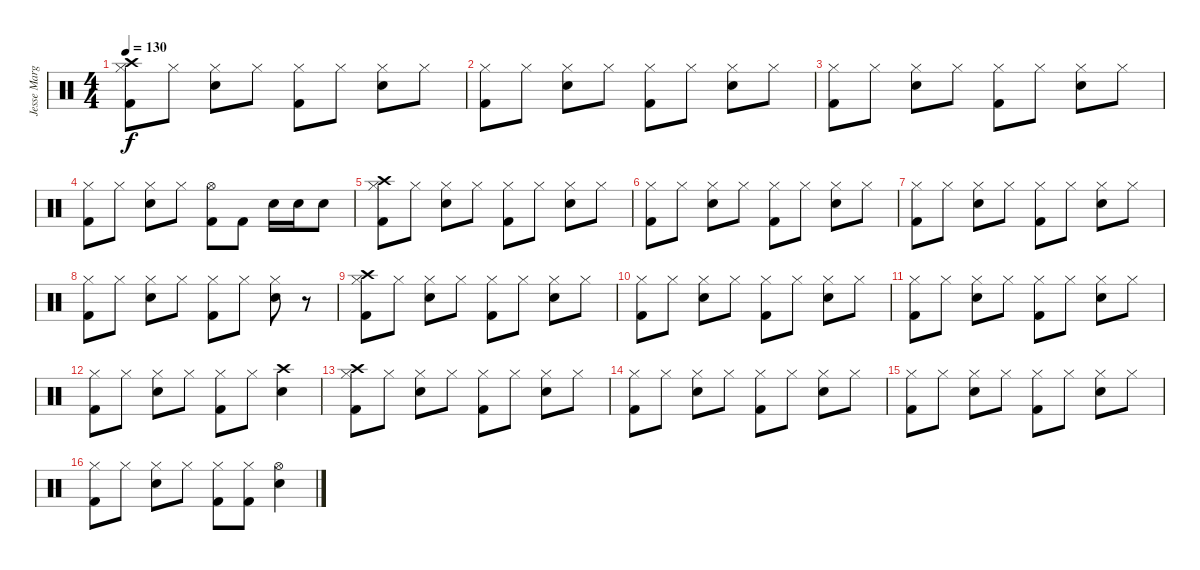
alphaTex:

\track ("Jesse Margera" "Jesse Marg") {instrument percussion}
\staff {score}
\articulation defaults
\ts (4 4)
\tempo 130
\clef neutral
\ks c
("Hi-Hat (closed)" "Crash high (hit)" "Kick (hit) 2").8{dy f} "Hi-Hat (closed)".8 ("Hi-Hat (closed)" "Electric Snare (hit)").8 "Hi-Hat (closed)".8 ("Hi-Hat (closed)" "Kick (hit) 2").8 "Hi-Hat (closed)".8 ("Hi-Hat (closed)" "Electric Snare (hit)").8 "Hi-Hat (closed)".8 |
("Hi-Hat (closed)" "Kick (hit) 2").8 "Hi-Hat (closed)".8 ("Hi-Hat (closed)" "Electric Snare (hit)").8 "Hi-Hat (closed)".8 ("Hi-Hat (closed)" "Kick (hit) 2").8 "Hi-Hat (closed)".8 ("Hi-Hat (closed)" "Electric Snare (hit)").8 "Hi-Hat (closed)".8 |
("Hi-Hat (closed)" "Kick (hit) 2").8 "Hi-Hat (closed)".8 ("Hi-Hat (closed)" "Electric Snare (hit)").8 "Hi-Hat (closed)".8 ("Hi-Hat (closed)" "Kick (hit) 2").8 "Hi-Hat (closed)".8 ("Hi-Hat (closed)" "Electric Snare (hit)").8 "Hi-Hat (closed)".8 |
("Hi-Hat (closed)" "Kick (hit) 2").8 "Hi-Hat (closed)".8 ("Hi-Hat (closed)" "Electric Snare (hit)").8 "Hi-Hat (closed)".8 ("Hi-Hat (open)" "Kick (hit) 2").8 "Kick (hit) 2".8 "Electric Snare (hit)".16 "Electric Snare (hit)".16 "Electric Snare (hit)".8 |
("Hi-Hat (closed)" "Crash high (hit)" "Kick (hit) 2").8 "Hi-Hat (closed)".8 ("Hi-Hat (closed)" "Electric Snare (hit)").8 "Hi-Hat (closed)".8 ("Hi-Hat (closed)" "Kick (hit) 2").8 "Hi-Hat (closed)".8 ("Hi-Hat (closed)" "Electric Snare (hit)").8 "Hi-Hat (closed)".8 |
("Hi-Hat (closed)" "Kick (hit) 2").8 "Hi-Hat (closed)".8 ("Hi-Hat (closed)" "Electric Snare (hit)").8 "Hi-Hat (closed)".8 ("Hi-Hat (closed)" "Kick (hit) 2").8 "Hi-Hat (closed)".8 ("Hi-Hat (closed)" "Electric Snare (hit)").8 "Hi-Hat (closed)".8 |
("Hi-Hat (closed)" "Kick (hit) 2").8 "Hi-Hat (closed)".8 ("Hi-Hat (closed)" "Electric Snare (hit)").8 "Hi-Hat (closed)".8 ("Hi-Hat (closed)" "Kick (hit) 2").8 "Hi-Hat (closed)".8 ("Hi-Hat (closed)" "Electric Snare (hit)").8 "Hi-Hat (closed)".8 |
("Hi-Hat (closed)" "Kick (hit) 2").8 "Hi-Hat (closed)".8 ("Hi-Hat (closed)" "Electric Snare (hit)").8 "Hi-Hat (closed)".8 ("Hi-Hat (closed)" "Kick (hit) 2").8 "Hi-Hat (closed)".8 ("Hi-Hat (closed)" "Electric Snare (hit)").8 r.8 |
("Hi-Hat (closed)" "Crash high (hit)" "Kick (hit) 2").8 "Hi-Hat (closed)".8 ("Hi-Hat (closed)" "Electric Snare (hit)").8 "Hi-Hat (closed)".8 ("Hi-Hat (closed)" "Kick (hit) 2").8 "Hi-Hat (closed)".8 ("Hi-Hat (closed)" "Electric Snare (hit)").8 "Hi-Hat (closed)".8 |
("Hi-Hat (closed)" "Kick (hit) 2").8 "Hi-Hat (closed)".8 ("Hi-Hat (closed)" "Electric Snare (hit)").8 "Hi-Hat (closed)".8 ("Hi-Hat (closed)" "Kick (hit) 2").8 "Hi-Hat (closed)".8 ("Hi-Hat (closed)" "Electric Snare (hit)").8 "Hi-Hat (closed)".8 |
("Hi-Hat (closed)" "Kick (hit) 2").8 "Hi-Hat (closed)".8 ("Hi-Hat (closed)" "Electric Snare (hit)").8 "Hi-Hat (closed)".8 ("Hi-Hat (closed)" "Kick (hit) 2").8 "Hi-Hat (closed)".8 ("Hi-Hat (closed)" "Electric Snare (hit)").8 "Hi-Hat (closed)".8 |
("Hi-Hat (closed)" "Kick (hit) 2").8 "Hi-Hat (closed)".8 ("Hi-Hat (closed)" "Electric Snare (hit)").8 "Hi-Hat (closed)".8 ("Hi-Hat (closed)" "Kick (hit) 2").8 "Hi-Hat (closed)".8 ("Crash high (hit)" "Electric Snare (hit)").4 |
("Hi-Hat (closed)" "Crash high (hit)" "Kick (hit) 2").8 "Hi-Hat (closed)".8 ("Hi-Hat (closed)" "Electric Snare (hit)").8 "Hi-Hat (closed)".8 ("Hi-Hat (closed)" "Kick (hit) 2").8 "Hi-Hat (closed)".8 ("Hi-Hat (closed)" "Electric Snare (hit)").8 "Hi-Hat (closed)".8 |
("Hi-Hat (closed)" "Kick (hit) 2").8 "Hi-Hat (closed)".8 ("Hi-Hat (closed)" "Electric Snare (hit)").8 "Hi-Hat (closed)".8 ("Hi-Hat (closed)" "Kick (hit) 2").8 "Hi-Hat (closed)".8 ("Hi-Hat (closed)" "Electric Snare (hit)").8 "Hi-Hat (closed)".8 |
("Hi-Hat (closed)" "Kick (hit) 2").8 "Hi-Hat (closed)".8 ("Hi-Hat (closed)" "Electric Snare (hit)").8 "Hi-Hat (closed)".8 ("Hi-Hat (closed)" "Kick (hit) 2").8 "Hi-Hat (closed)".8 ("Hi-Hat (closed)" "Electric Snare (hit)").8 "Hi-Hat (closed)".8 |
("Hi-Hat (closed)" "Kick (hit) 2").8 "Hi-Hat (closed)".8 ("Hi-Hat (closed)" "Electric Snare (hit)").8 "Hi-Hat (closed)".8 ("Hi-Hat (closed)" "Kick (hit) 2").8 ("Hi-Hat (closed)" "Kick (hit) 2").8 ("Hi-Hat (open)" "Electric Snare (hit)").4
